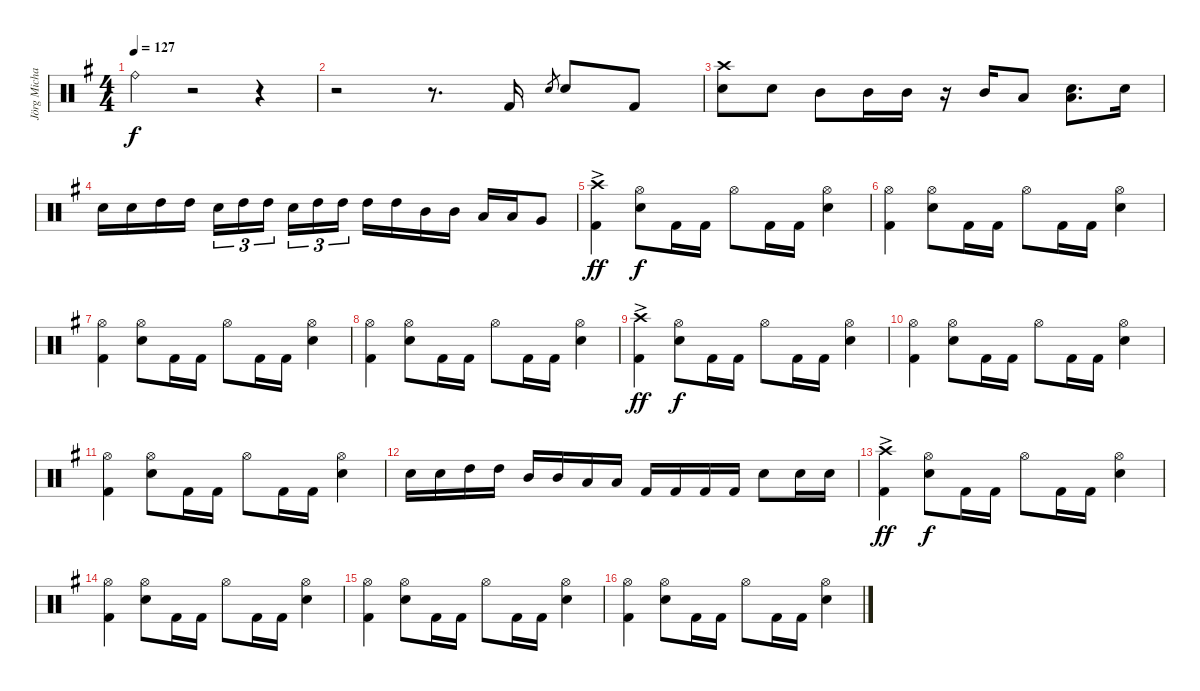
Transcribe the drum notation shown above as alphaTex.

\track ("Jörg Michael" "Jörg Micha") {instrument percussion}
\staff {score}
\articulation defaults
\ts (4 4)
\tempo 127
\clef neutral
\ks g "Ride (bell)".4{dy f}
r.2 r.4 |
r.2 r.8{d} "Kick (hit) 2".16 "Electric Snare (hit)".8{gr} "Electric Snare (hit)".8 "Kick (hit) 2".8 |
("Crash high (hit)" "Electric Snare (hit)").8 "Electric Snare (hit)".8 "Mid Tom (hit)".8 "Mid Tom (hit)".16 "Mid Tom (hit)".16 r.16 "Mid Tom (hit)".16 "Low Tom (hit)".8 ("Electric Snare (hit)" "Low Tom (hit)").8{d} "Electric Snare (hit)".16 |
"Electric Snare (hit)".16 "Electric Snare (hit)".16 "High Tom (hit)".16 "High Tom (hit)".16 "Electric Snare (hit)".16{tu (3 2)} "High Tom (hit)".16{tu (3 2)} "High Tom (hit)".16{tu (3 2) beam splitsecondary} "Electric Snare (hit)".16{tu (3 2)} "High Tom (hit)".16{tu (3 2)} "High Tom (hit)".16{tu (3 2)} "High Tom (hit)".16 "High Tom (hit)".16 "Mid Tom (hit)".16 "Mid Tom (hit)".16 "Low Tom (hit)".16 "Low Tom (hit)".16 "Very Low Tom (hit)".8 |
("Crash high (hit)"{ac} "Kick (hit) 2"{ac}).4{dy ff} ("Hi-Hat (open)" "Electric Snare (hit)").8{dy f} "Kick (hit) 2".16 "Kick (hit) 2".16 "Hi-Hat (open)".8 "Kick (hit) 2".16 "Kick (hit) 2".16 ("Hi-Hat (open)" "Electric Snare (hit)").4 |
("Hi-Hat (open)" "Kick (hit) 2").4 ("Hi-Hat (open)" "Electric Snare (hit)").8 "Kick (hit) 2".16 "Kick (hit) 2".16 "Hi-Hat (open)".8 "Kick (hit) 2".16 "Kick (hit) 2".16 ("Hi-Hat (open)" "Electric Snare (hit)").4 |
("Hi-Hat (open)" "Kick (hit) 2").4 ("Hi-Hat (open)" "Electric Snare (hit)").8 "Kick (hit) 2".16 "Kick (hit) 2".16 "Hi-Hat (open)".8 "Kick (hit) 2".16 "Kick (hit) 2".16 ("Hi-Hat (open)" "Electric Snare (hit)").4 |
("Hi-Hat (open)" "Kick (hit) 2").4 ("Hi-Hat (open)" "Electric Snare (hit)").8 "Kick (hit) 2".16 "Kick (hit) 2".16 "Hi-Hat (open)".8 "Kick (hit) 2".16 "Kick (hit) 2".16 ("Hi-Hat (open)" "Electric Snare (hit)").4 |
("Crash high (hit)"{ac} "Kick (hit) 2"{ac}).4{dy ff} ("Hi-Hat (open)" "Electric Snare (hit)").8{dy f} "Kick (hit) 2".16 "Kick (hit) 2".16 "Hi-Hat (open)".8 "Kick (hit) 2".16 "Kick (hit) 2".16 ("Hi-Hat (open)" "Electric Snare (hit)").4 |
("Hi-Hat (open)" "Kick (hit) 2").4 ("Hi-Hat (open)" "Electric Snare (hit)").8 "Kick (hit) 2".16 "Kick (hit) 2".16 "Hi-Hat (open)".8 "Kick (hit) 2".16 "Kick (hit) 2".16 ("Hi-Hat (open)" "Electric Snare (hit)").4 |
("Hi-Hat (open)" "Kick (hit) 2").4 ("Hi-Hat (open)" "Electric Snare (hit)").8 "Kick (hit) 2".16 "Kick (hit) 2".16 "Hi-Hat (open)".8 "Kick (hit) 2".16 "Kick (hit) 2".16 ("Hi-Hat (open)" "Electric Snare (hit)").4 |
"Electric Snare (hit)".16 "Electric Snare (hit)".16 "High Tom (hit)".16 "High Tom (hit)".16 "Mid Tom (hit)".16 "Mid Tom (hit)".16 "Low Tom (hit)".16 "Low Tom (hit)".16 "Kick (hit) 2".16 "Kick (hit) 2".16 "Kick (hit) 2".16 "Kick (hit) 2".16 "Electric Snare (hit)".8 "Electric Snare (hit)".16 "Electric Snare (hit)".16 |
("Crash high (hit)"{ac} "Kick (hit) 2"{ac}).4{dy ff} ("Hi-Hat (open)" "Electric Snare (hit)").8{dy f} "Kick (hit) 2".16 "Kick (hit) 2".16 "Hi-Hat (open)".8 "Kick (hit) 2".16 "Kick (hit) 2".16 ("Hi-Hat (open)" "Electric Snare (hit)").4 |
("Hi-Hat (open)" "Kick (hit) 2").4 ("Hi-Hat (open)" "Electric Snare (hit)").8 "Kick (hit) 2".16 "Kick (hit) 2".16 "Hi-Hat (open)".8 "Kick (hit) 2".16 "Kick (hit) 2".16 ("Hi-Hat (open)" "Electric Snare (hit)").4 |
("Hi-Hat (open)" "Kick (hit) 2").4 ("Hi-Hat (open)" "Electric Snare (hit)").8 "Kick (hit) 2".16 "Kick (hit) 2".16 "Hi-Hat (open)".8 "Kick (hit) 2".16 "Kick (hit) 2".16 ("Hi-Hat (open)" "Electric Snare (hit)").4 |
("Hi-Hat (open)" "Kick (hit) 2").4 ("Hi-Hat (open)" "Electric Snare (hit)").8 "Kick (hit) 2".16 "Kick (hit) 2".16 "Hi-Hat (open)".8 "Kick (hit) 2".16 "Kick (hit) 2".16 ("Hi-Hat (open)" "Electric Snare (hit)").4
